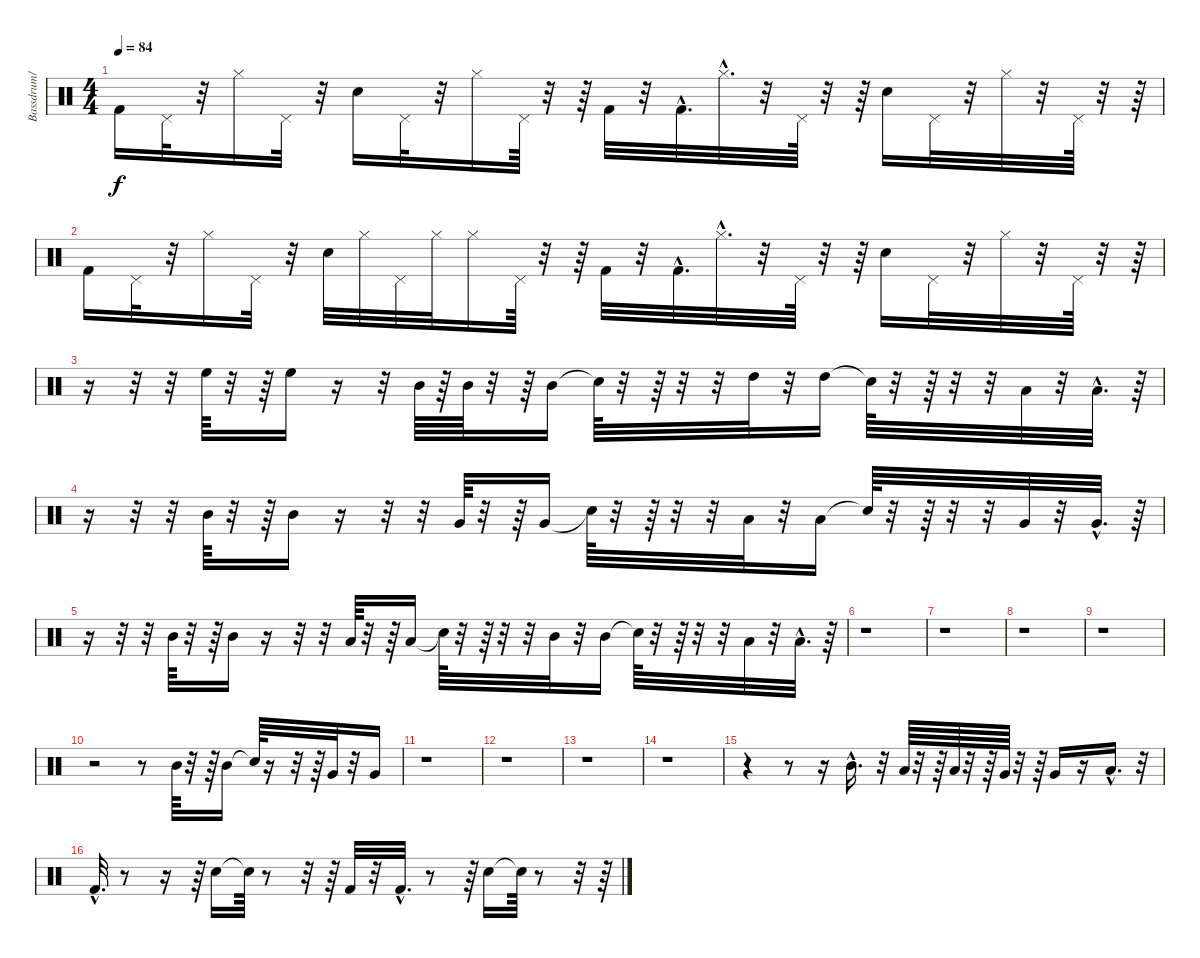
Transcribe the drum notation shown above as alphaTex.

\track ("Bassdrum/" "Bassdrum/") {instrument percussion}
\staff {score}
\articulation defaults
\ts (4 4)
\tempo 84
\clef neutral
\ks c "Kick (hit) 2".16{dy f} "Pedal Hi-Hat (hit)".32
r.32 "Hi-Hat (closed)".16 "Pedal Hi-Hat (hit)".32 r.32 "Snare (hit) 2".16 "Pedal Hi-Hat (hit)".32 r.32 "Hi-Hat (closed)".16 "Pedal Hi-Hat (hit)".64 r.32 r.64 "Kick (hit) 2".32 r.32 "Kick (hit) 2"{hac}.32{d} "Hi-Hat (closed)"{hac}.32{d} r.32 "Pedal Hi-Hat (hit)".64 r.32 r.64 "Snare (hit) 2".16 "Pedal Hi-Hat (hit)".32 r.32 "Hi-Hat (closed)".32 r.32 "Pedal Hi-Hat (hit)".64 r.32 r.64 |
"Kick (hit) 2".16 "Pedal Hi-Hat (hit)".32 r.32 "Hi-Hat (closed)".16 "Pedal Hi-Hat (hit)".32 r.32 "Snare (hit) 2".32 "Hi-Hat (closed)".32 "Pedal Hi-Hat (hit)".32 "Hi-Hat (closed)".32 "Hi-Hat (closed)".16 "Pedal Hi-Hat (hit)".64 r.32 r.64 "Kick (hit) 2".32 r.32 "Kick (hit) 2"{hac}.32{d} "Hi-Hat (closed)"{hac}.32{d} r.32 "Pedal Hi-Hat (hit)".64 r.32 r.64 "Snare (hit) 2".16 "Pedal Hi-Hat (hit)".32 r.32 "Hi-Hat (closed)".32 r.32 "Pedal Hi-Hat (hit)".64 r.32 r.64 |
r.16 r.32 r.32 "High Floor Tom (hit)".64 r.32 r.64 "High Floor Tom (hit)".16 r.16 r.32 "Mid Tom (hit)".64 r.64 "Mid Tom (hit)".64 r.32 r.64 "Mid Tom (hit)".16 "Snare (hit)"{t}.64 r.32 r.64 r.32 r.32 "High Tom (hit)".32 r.32 "High Tom (hit)".16 "Snare (hit)"{t}.64 r.32 r.64 r.32 r.32 "Low Tom (hit)".32 r.32 "Low Tom (hit)"{hac}.32{d} r.64 |
r.16 r.32 r.32 "Mid Tom (hit)".64 r.32 r.64 "Mid Tom (hit)".16 r.16 r.32 r.32 "Very Low Tom (hit)".64 r.32 r.64 "Very Low Tom (hit)".16 "Snare (hit)"{t}.64 r.32 r.64 r.32 r.32 "Low Floor Tom (hit)".32 r.32 "Low Floor Tom (hit)".16 "Snare (hit)"{t}.64 r.32 r.64 r.32 r.32 "Very Low Tom (hit)".32 r.32 "Very Low Tom (hit)"{hac}.32{d} r.64 |
r.16 r.32 r.32 "Mid Tom (hit)".64 r.32 r.64 "Mid Tom (hit)".16 r.16 r.32 r.32 "Low Tom (hit)".64 r.32 r.64 "Low Tom (hit)".16 "Snare (hit)"{t}.64 r.32 r.64 r.32 r.32 "Mid Tom (hit)".32 r.32 "Mid Tom (hit)".16 "Snare (hit)"{t}.64 r.32 r.64 r.32 r.32 "Low Tom (hit)".32 r.32 "Low Tom (hit)"{hac}.32{d} r.64 |
r.1 |
r.1 |
r.1 |
r.1 |
r.2 r.8 "Mid Tom (hit)".64 r.32 r.64 "Mid Tom (hit)".16 "Snare (hit)"{t}.64 r.16 r.32 r.64 "Very Low Tom (hit)".32 r.32 "Very Low Tom (hit)".16 |
r.1 |
r.1 |
r.1 |
r.1 |
r.4 r.8 r.16 "Mid Tom (hit)"{hac}.16{d} r.32 "Low Tom (hit)".64 r.32 r.64 "Low Tom (hit)".64 r.32 r.64 "Very Low Tom (hit)".64 r.32 r.64 "Very Low Tom (hit)".16 r.16 "Low Floor Tom (hit)"{hac}.16{d} r.32 |
"Kick (hit) 2"{hac}.32{d} r.8 r.16 r.64 "Snare (hit) 2".16 "Snare (hit)"{t}.64 r.8 r.32 r.64 "Kick (hit) 2".32 r.32 "Kick (hit) 2"{hac}.32{d} r.8 r.64 "Snare (hit) 2".16 "Snare (hit)"{t}.64 r.8 r.32 r.64
